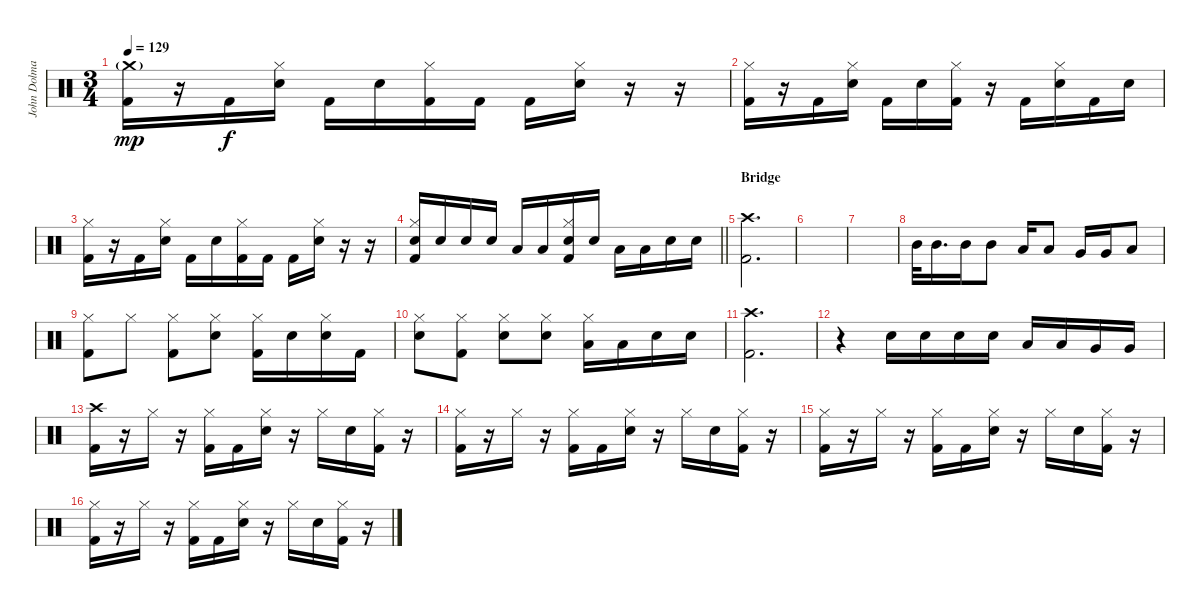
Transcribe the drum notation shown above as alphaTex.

\track ("John Dolmayan" "John Dolma") {instrument percussion}
\staff {score}
\articulation defaults
\ts (3 4)
\tempo 129
\clef neutral
\ks c
("Crash medium (hit)"{g} "Kick (hit) 2").16{dy mp} r.16 "Kick (hit) 2".16{dy f} ("Hi-Hat (closed)" "Electric Snare (hit)").16 "Kick (hit) 2".16 "Electric Snare (hit)".16 ("Hi-Hat (closed)" "Kick (hit) 2").16 "Kick (hit) 2".16 "Kick (hit) 2".16 ("Hi-Hat (closed)" "Electric Snare (hit)").16 r.16 r.16 |
("Hi-Hat (closed)" "Kick (hit) 2").16 r.16 "Kick (hit) 2".16 ("Hi-Hat (closed)" "Electric Snare (hit)").16 "Kick (hit) 2".16 "Electric Snare (hit)".16 ("Hi-Hat (closed)" "Kick (hit) 2").16 r.16 "Kick (hit) 2".16 ("Hi-Hat (closed)" "Electric Snare (hit)").16 "Kick (hit) 2".16 "Electric Snare (hit)".16 |
("Hi-Hat (closed)" "Kick (hit) 2").16 r.16 "Kick (hit) 2".16 ("Hi-Hat (closed)" "Electric Snare (hit)").16 "Kick (hit) 2".16 "Electric Snare (hit)".16 ("Hi-Hat (closed)" "Kick (hit) 2").16 "Kick (hit) 2".16 "Kick (hit) 2".16 ("Hi-Hat (closed)" "Electric Snare (hit)").16 r.16 r.16 |
\barLineRight lightlight
("Hi-Hat (closed)" "Electric Snare (hit)" "Kick (hit) 2").16 "Electric Snare (hit)".16 "Electric Snare (hit)".16 "Electric Snare (hit)".16 "Low Tom (hit)".16 "Low Tom (hit)".16 ("Hi-Hat (closed)" "Electric Snare (hit)" "Kick (hit) 2").16 "Electric Snare (hit)".16 "Low Tom (hit)".16 "Low Tom (hit)".16 "Electric Snare (hit)".16 "Electric Snare (hit)".16 |
\section ("" "Bridge")
("Crash high (hit)" "Kick (hit) 2").2{d} |
|
|
"Mid Tom (hit)".32 "Mid Tom (hit)".16{d} "Mid Tom (hit)".16 "Mid Tom (hit)".8 "Low Tom (hit)".16 "Low Tom (hit)".8 "Very Low Tom (hit)".16 "Very Low Tom (hit)".16 "Low Floor Tom (hit)".8 |
("Hi-Hat (closed)" "Kick (hit) 2").8 "Hi-Hat (closed)".8 ("Hi-Hat (closed)" "Kick (hit) 2").8 ("Hi-Hat (closed)" "Electric Snare (hit)").8 ("Hi-Hat (closed)" "Kick (hit) 2").16 "Electric Snare (hit)".16 ("Hi-Hat (closed)" "Electric Snare (hit)").16 "Kick (hit) 2".16 |
("Hi-Hat (closed)" "Electric Snare (hit)").8 ("Hi-Hat (closed)" "Kick (hit) 2").8 ("Hi-Hat (closed)" "Electric Snare (hit)").8 ("Hi-Hat (closed)" "Electric Snare (hit)").8 ("Hi-Hat (closed)" "Low Tom (hit)").16 "Low Tom (hit)".16 "Electric Snare (hit)".16 "Electric Snare (hit)".16 |
("Crash high (hit)" "Kick (hit) 2").2{d} |
r.4 "Electric Snare (hit)".16 "Electric Snare (hit)".16 "Electric Snare (hit)".16 "Electric Snare (hit)".16 "Low Tom (hit)".16 "Low Tom (hit)".16 "Very Low Tom (hit)".16 "Very Low Tom (hit)".16 |
("Crash high (hit)" "Kick (hit) 2").16 r.16 "Hi-Hat (closed)".16 r.16 ("Hi-Hat (closed)" "Kick (hit) 2").16 "Kick (hit) 2".16 ("Hi-Hat (closed)" "Electric Snare (hit)").16 r.16 "Hi-Hat (closed)".16 "Electric Snare (hit)".16 ("Hi-Hat (closed)" "Kick (hit) 2").16 r.16 |
("Hi-Hat (closed)" "Kick (hit) 2").16 r.16 "Hi-Hat (closed)".16 r.16 ("Hi-Hat (closed)" "Kick (hit) 2").16 "Kick (hit) 2".16 ("Hi-Hat (closed)" "Electric Snare (hit)").16 r.16 "Hi-Hat (closed)".16 "Electric Snare (hit)".16 ("Hi-Hat (closed)" "Kick (hit) 2").16 r.16 |
("Hi-Hat (closed)" "Kick (hit) 2").16 r.16 "Hi-Hat (closed)".16 r.16 ("Hi-Hat (closed)" "Kick (hit) 2").16 "Kick (hit) 2".16 ("Hi-Hat (closed)" "Electric Snare (hit)").16 r.16 "Hi-Hat (closed)".16 "Electric Snare (hit)".16 ("Hi-Hat (closed)" "Kick (hit) 2").16 r.16 |
("Hi-Hat (closed)" "Kick (hit) 2").16 r.16 "Hi-Hat (closed)".16 r.16 ("Hi-Hat (closed)" "Kick (hit) 2").16 "Kick (hit) 2".16 ("Hi-Hat (closed)" "Electric Snare (hit)").16 r.16 "Hi-Hat (closed)".16 "Electric Snare (hit)".16 ("Hi-Hat (closed)" "Kick (hit) 2").16 r.16
